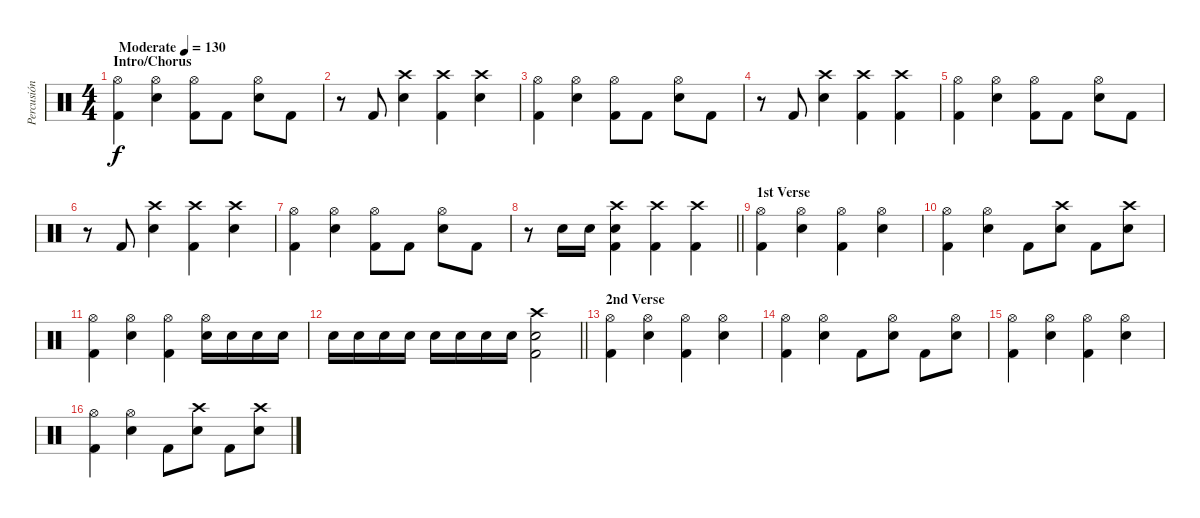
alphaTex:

\track ("Percusión" "Percusión") {instrument percussion}
\staff
\articulation defaults
\ts (4 4)
\section ("" "Intro/Chorus")
\tempo (130 "Moderate")
\clef neutral
\ks c
("Hi-Hat (open)" "Kick (hit) 2").4{dy f} ("Hi-Hat (open)" "Snare (hit) 2").4 ("Hi-Hat (open)" "Kick (hit) 2").8 "Kick (hit) 2".8 ("Hi-Hat (open)" "Snare (hit) 2").8 "Kick (hit) 2".8 |
r.8 "Kick (hit) 2".8 ("Crash high (hit)" "Snare (hit) 2").4 ("Crash high (hit)" "Kick (hit) 2").4 ("Crash high (hit)" "Snare (hit) 2").4 |
("Hi-Hat (open)" "Kick (hit) 2").4 ("Hi-Hat (open)" "Snare (hit) 2").4 ("Hi-Hat (open)" "Kick (hit) 2").8 "Kick (hit) 2".8 ("Hi-Hat (open)" "Snare (hit) 2").8 "Kick (hit) 2".8 |
r.8 "Kick (hit) 2".8 ("Crash high (hit)" "Snare (hit) 2").4 ("Crash high (hit)" "Kick (hit) 2").4 ("Crash high (hit)" "Kick (hit) 2").4 |
("Hi-Hat (open)" "Kick (hit) 2").4 ("Hi-Hat (open)" "Snare (hit) 2").4 ("Hi-Hat (open)" "Kick (hit) 2").8 "Kick (hit) 2".8 ("Hi-Hat (open)" "Snare (hit) 2").8 "Kick (hit) 2".8 |
r.8 "Kick (hit) 2".8 ("Crash high (hit)" "Snare (hit) 2").4 ("Crash high (hit)" "Kick (hit) 2").4 ("Crash high (hit)" "Snare (hit) 2").4 |
("Hi-Hat (open)" "Kick (hit) 2").4 ("Hi-Hat (open)" "Snare (hit) 2").4 ("Hi-Hat (open)" "Kick (hit) 2").8 "Kick (hit) 2".8 ("Hi-Hat (open)" "Snare (hit) 2").8 "Kick (hit) 2".8 |
\barLineRight lightlight
r.8 "Snare (hit) 2".16 "Snare (hit) 2".16 ("Crash high (hit)" "Snare (hit) 2" "Kick (hit) 2").4 ("Crash high (hit)" "Kick (hit) 2").4 ("Crash high (hit)" "Kick (hit) 2").4 |
\section ("" "1st Verse")
("Hi-Hat (open)" "Kick (hit) 2").4 ("Hi-Hat (open)" "Snare (hit) 2").4 ("Hi-Hat (open)" "Kick (hit) 2").4 ("Hi-Hat (open)" "Snare (hit) 2").4 |
("Hi-Hat (open)" "Kick (hit) 2").4 ("Hi-Hat (open)" "Snare (hit) 2").4 "Kick (hit) 2".8 ("Crash high (hit)" "Snare (hit) 2").8 "Kick (hit) 2".8 ("Crash high (hit)" "Snare (hit) 2").8 |
("Hi-Hat (open)" "Kick (hit) 2").4 ("Hi-Hat (open)" "Snare (hit) 2").4 ("Hi-Hat (open)" "Kick (hit) 2").4 ("Hi-Hat (open)" "Snare (hit) 2").16 "Snare (hit) 2".16 "Snare (hit) 2".16 "Snare (hit) 2".16 |
\barLineRight lightlight "Snare (hit) 2".16 "Snare (hit) 2".16 "Snare (hit) 2".16 "Snare (hit) 2".16 "Snare (hit) 2".16 "Snare (hit) 2".16 "Snare (hit) 2".16 "Snare (hit) 2".16
("Crash high (hit)" "Snare (hit) 2" "Kick (hit) 2").2 |
\section ("" "2nd Verse")
("Hi-Hat (open)" "Kick (hit) 2").4 ("Hi-Hat (open)" "Snare (hit) 2").4 ("Hi-Hat (open)" "Kick (hit) 2").4 ("Hi-Hat (open)" "Snare (hit) 2").4 |
("Hi-Hat (open)" "Kick (hit) 2").4 ("Hi-Hat (open)" "Snare (hit) 2").4 "Kick (hit) 2".8 ("Hi-Hat (open)" "Snare (hit) 2").8 "Kick (hit) 2".8 ("Hi-Hat (open)" "Snare (hit) 2").8 |
("Hi-Hat (open)" "Kick (hit) 2").4 ("Hi-Hat (open)" "Snare (hit) 2").4 ("Hi-Hat (open)" "Kick (hit) 2").4 ("Hi-Hat (open)" "Snare (hit) 2").4 |
("Hi-Hat (open)" "Kick (hit) 2").4 ("Hi-Hat (open)" "Snare (hit) 2").4 "Kick (hit) 2".8 ("Crash high (hit)" "Snare (hit) 2").8 "Kick (hit) 2".8 ("Crash high (hit)" "Snare (hit) 2").8
